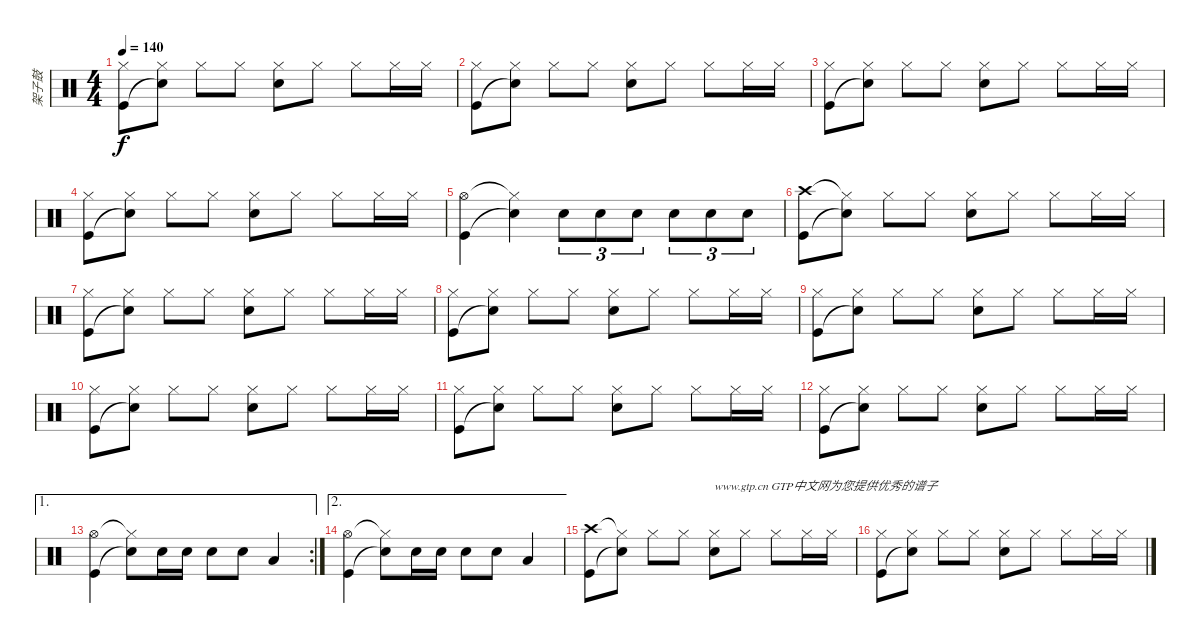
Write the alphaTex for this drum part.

\track ("架子鼓" "架子鼓") {instrument percussion}
\staff {score}
\articulation defaults
\ts (4 4)
\tempo 140
\clef neutral
\ks c
("Hi-Hat (closed)" "Kick (hit)").8{dy f} ("Hi-Hat (closed)" "Snare (hit)"{t}).8 "Hi-Hat (closed)".8 "Hi-Hat (closed)".8 ("Hi-Hat (closed)" "Snare (hit) 2").8 "Hi-Hat (closed)".8 "Hi-Hat (closed)".8 "Hi-Hat (closed)".16 "Hi-Hat (closed)".16 |
("Hi-Hat (closed)" "Kick (hit)").8 ("Hi-Hat (closed)" "Snare (hit)"{t}).8 "Hi-Hat (closed)".8 "Hi-Hat (closed)".8 ("Hi-Hat (closed)" "Snare (hit) 2").8 "Hi-Hat (closed)".8 "Hi-Hat (closed)".8 "Hi-Hat (closed)".16 "Hi-Hat (closed)".16 |
("Hi-Hat (closed)" "Kick (hit)").8 ("Hi-Hat (closed)" "Snare (hit)"{t}).8 "Hi-Hat (closed)".8 "Hi-Hat (closed)".8 ("Hi-Hat (closed)" "Snare (hit) 2").8 "Hi-Hat (closed)".8 "Hi-Hat (closed)".8 "Hi-Hat (closed)".16 "Hi-Hat (closed)".16 |
("Hi-Hat (closed)" "Kick (hit)").8 ("Hi-Hat (closed)" "Snare (hit)"{t}).8 "Hi-Hat (closed)".8 "Hi-Hat (closed)".8 ("Hi-Hat (closed)" "Snare (hit) 2").8 "Hi-Hat (closed)".8 "Hi-Hat (closed)".8 "Hi-Hat (closed)".16 "Hi-Hat (closed)".16 |
("Hi-Hat (open)" "Kick (hit)").4 ("Hi-Hat (closed)"{t} "Snare (hit)"{t}).4 "Snare (hit) 2".8{tu (3 2)} "Snare (hit) 2".8{tu (3 2)} "Snare (hit) 2".8{tu (3 2)} "Snare (hit) 2".8{tu (3 2)} "Snare (hit) 2".8{tu (3 2)} "Snare (hit) 2".8{tu (3 2)} |
("Crash high (hit)" "Kick (hit)").8 ("Hi-Hat (closed)"{t} "Snare (hit)"{t}).8 "Hi-Hat (closed)".8 "Hi-Hat (closed)".8 ("Hi-Hat (closed)" "Snare (hit) 2").8 "Hi-Hat (closed)".8 "Hi-Hat (closed)".8 "Hi-Hat (closed)".16 "Hi-Hat (closed)".16 |
("Hi-Hat (closed)" "Kick (hit)").8 ("Hi-Hat (closed)" "Snare (hit)"{t}).8 "Hi-Hat (closed)".8 "Hi-Hat (closed)".8 ("Hi-Hat (closed)" "Snare (hit) 2").8 "Hi-Hat (closed)".8 "Hi-Hat (closed)".8 "Hi-Hat (closed)".16 "Hi-Hat (closed)".16 |
("Hi-Hat (closed)" "Kick (hit)").8 ("Hi-Hat (closed)" "Snare (hit)"{t}).8 "Hi-Hat (closed)".8 "Hi-Hat (closed)".8 ("Hi-Hat (closed)" "Snare (hit) 2").8 "Hi-Hat (closed)".8 "Hi-Hat (closed)".8 "Hi-Hat (closed)".16 "Hi-Hat (closed)".16 |
("Hi-Hat (closed)" "Kick (hit)").8 ("Hi-Hat (closed)" "Snare (hit)"{t}).8 "Hi-Hat (closed)".8 "Hi-Hat (closed)".8 ("Hi-Hat (closed)" "Snare (hit) 2").8 "Hi-Hat (closed)".8 "Hi-Hat (closed)".8 "Hi-Hat (closed)".16 "Hi-Hat (closed)".16 |
("Hi-Hat (closed)" "Kick (hit)").8 ("Hi-Hat (closed)" "Snare (hit)"{t}).8 "Hi-Hat (closed)".8 "Hi-Hat (closed)".8 ("Hi-Hat (closed)" "Snare (hit) 2").8 "Hi-Hat (closed)".8 "Hi-Hat (closed)".8 "Hi-Hat (closed)".16 "Hi-Hat (closed)".16 |
("Hi-Hat (closed)" "Kick (hit)").8 ("Hi-Hat (closed)" "Snare (hit)"{t}).8 "Hi-Hat (closed)".8 "Hi-Hat (closed)".8 ("Hi-Hat (closed)" "Snare (hit) 2").8 "Hi-Hat (closed)".8 "Hi-Hat (closed)".8 "Hi-Hat (closed)".16 "Hi-Hat (closed)".16 |
("Hi-Hat (closed)" "Kick (hit)").8 ("Hi-Hat (closed)" "Snare (hit)"{t}).8 "Hi-Hat (closed)".8 "Hi-Hat (closed)".8 ("Hi-Hat (closed)" "Snare (hit) 2").8 "Hi-Hat (closed)".8 "Hi-Hat (closed)".8 "Hi-Hat (closed)".16 "Hi-Hat (closed)".16 |
\ae 1
\rc 2
("Hi-Hat (open)" "Kick (hit)").4 ("Hi-Hat (closed)"{t} "Snare (hit)"{t}).8 "Snare (hit) 2".16 "Snare (hit) 2".16 "Snare (hit) 2".8 "Snare (hit) 2".8 "Low Tom (hit)".4 |
\ae 2
("Hi-Hat (open)" "Kick (hit)").4 ("Hi-Hat (closed)"{t} "Snare (hit)"{t}).8 "Snare (hit) 2".16 "Snare (hit) 2".16 "Snare (hit) 2".8 "Snare (hit) 2".8 "Low Tom (hit)".4 |
("Crash high (hit)" "Kick (hit)").8 ("Hi-Hat (closed)"{t} "Snare (hit)"{t}).8 "Hi-Hat (closed)".8 "Hi-Hat (closed)".8 ("Hi-Hat (closed)" "Snare (hit) 2").8{txt "www.gtp.cn GTP中文网为您提供优秀的谱子"} "Hi-Hat (closed)".8 "Hi-Hat (closed)".8 "Hi-Hat (closed)".16 "Hi-Hat (closed)".16 |
("Hi-Hat (closed)" "Kick (hit)").8 ("Hi-Hat (closed)" "Snare (hit)"{t}).8 "Hi-Hat (closed)".8 "Hi-Hat (closed)".8 ("Hi-Hat (closed)" "Snare (hit) 2").8 "Hi-Hat (closed)".8 "Hi-Hat (closed)".8 "Hi-Hat (closed)".16 "Hi-Hat (closed)".16
